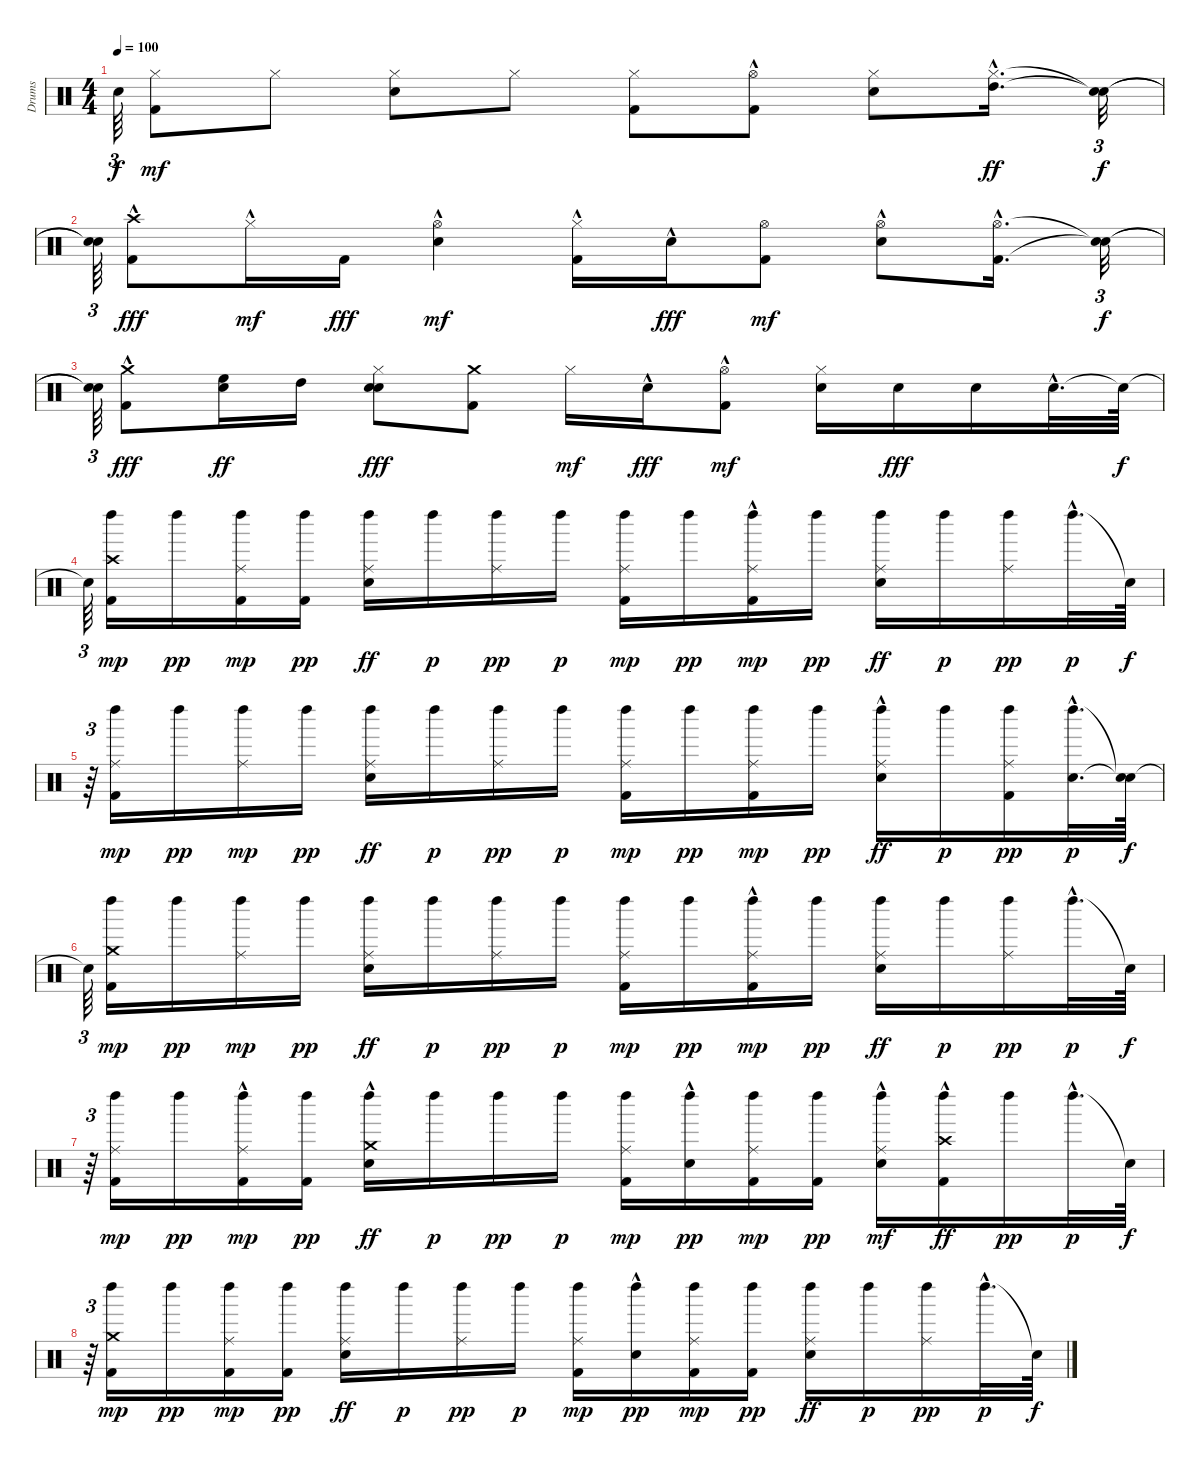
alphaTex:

\track ("Drums" "Drums") {instrument percussion}
\staff {score}
\articulation defaults
\ts (4 4)
\tempo 100
\clef neutral
\ks c "Snare (hit)"{t}.64{tu (3 2) dy f}
("Kick (hit) 2" "Hi-Hat (closed)").8{dy mf} "Hi-Hat (closed)".8 ("Snare (hit) 2" "Hi-Hat (closed)").8 "Hi-Hat (closed)".8 ("Kick (hit) 2" "Hi-Hat (closed)").8 ("Kick (hit) 2"{hac} "Hi-Hat (open)").8 ("Snare (hit) 2" "Hi-Hat (closed)").8 ("Hi-Hat (closed)"{hac} "High Tom (hit)"{hac}).16{d dy ff} ("Snare (hit)"{t} "Snare (hit)"{t}).32{tu (3 2) dy f} |
("Snare (hit)"{t} "Snare (hit)"{t}).64{tu (3 2)} ("Crash high (hit)" "Kick (hit) 2"{hac}).8{dy fff} "Hi-Hat (closed)"{hac}.16{dy mf} "Kick (hit) 2".16{dy fff} ("Snare (hit) 2" "Hi-Hat (open)"{hac}).4{dy mf} ("Kick (hit) 2" "Hi-Hat (closed)"{hac}).16 "Snare (hit) 2"{hac}.16{dy fff} ("Kick (hit) 2" "Hi-Hat (open)").8{dy mf} ("Snare (hit) 2"{hac} "Hi-Hat (open)").8 ("Kick (hit) 2"{hac} "Hi-Hat (open)"{hac}).16{d} ("Snare (hit)"{t} "Snare (hit)"{t}).32{tu (3 2) dy f} |
("Snare (hit)"{t} "Snare (hit)"{t}).64{tu (3 2)} ("Crash medium (hit)"{hac} "Kick (hit) 2"{hac}).8{dy fff} ("Snare (hit) 2" "High Floor Tom (hit)").16{dy ff} "High Tom (hit)".16 ("Snare (hit) 2" "Hi-Hat (closed)" "Snare (hit) 2").8{dy fff} ("Crash medium (hit)" "Kick (hit) 2").8 "Hi-Hat (closed)".16{dy mf} "Snare (hit) 2"{hac}.16{dy fff} ("Kick (hit) 2"{hac} "Hi-Hat (open)").8{dy mf} ("Snare (hit) 2" "Hi-Hat (closed)").16 "Snare (hit) 2".16{dy fff} "Snare (hit) 2".16 "Snare (hit) 2"{hac}.32{d} "Snare (hit)"{t}.64{dy f} |
"Snare (hit)"{t}.64{tu (3 2)} ("Crash high (hit)" "Kick (hit) 2" "Left Maraca (hit)").16{dy mp} "Left Maraca (hit)".16{dy pp} ("Ride (middle)" "Kick (hit) 2" "Left Maraca (hit)").16{dy mp} ("Kick (hit) 2" "Left Maraca (hit)").16{dy pp} ("Ride (middle)" "Snare (hit) 2" "Left Maraca (hit)").16{dy ff} "Left Maraca (hit)".16{dy p} ("Ride (middle)" "Left Maraca (hit)").16{dy pp} "Left Maraca (hit)".16{dy p} ("Ride (middle)" "Kick (hit) 2" "Left Maraca (hit)").16{dy mp} "Left Maraca (hit)".16{dy pp} ("Ride (middle)" "Kick (hit) 2"{hac} "Left Maraca (hit)").16{dy mp} "Left Maraca (hit)".16{dy pp} ("Ride (middle)" "Snare (hit) 2" "Left Maraca (hit)").16{dy ff} "Left Maraca (hit)".16{dy p} ("Ride (middle)" "Left Maraca (hit)").16{dy pp} "Left Maraca (hit)"{hac}.32{d dy p} "Snare (hit)"{t}.64{dy f} |
r.64{tu (3 2)} ("Ride (middle)" "Kick (hit) 2" "Left Maraca (hit)").16{dy mp} "Left Maraca (hit)".16{dy pp} ("Ride (middle)" "Left Maraca (hit)").16{dy mp} "Left Maraca (hit)".16{dy pp} ("Ride (middle)" "Snare (hit) 2" "Left Maraca (hit)").16{dy ff} "Left Maraca (hit)".16{dy p} ("Ride (middle)" "Left Maraca (hit)").16{dy pp} "Left Maraca (hit)".16{dy p} ("Ride (middle)" "Kick (hit) 2" "Left Maraca (hit)").16{dy mp} "Left Maraca (hit)".16{dy pp} ("Ride (middle)" "Kick (hit) 2" "Left Maraca (hit)").16{dy mp} "Left Maraca (hit)".16{dy pp} ("Ride (middle)" "Snare (hit) 2"{hac} "Left Maraca (hit)").16{dy ff} "Left Maraca (hit)".16{dy p} ("Ride (middle)" "Kick (hit) 2" "Left Maraca (hit)").16{dy pp} ("Snare (hit) 2"{hac} "Left Maraca (hit)"{hac}).32{d dy p} ("Snare (hit)"{t} "Snare (hit)"{t}).64{dy f} |
"Snare (hit)"{t}.64{tu (3 2)} ("Crash medium (hit)" "Kick (hit) 2" "Left Maraca (hit)").16{dy mp} "Left Maraca (hit)".16{dy pp} ("Ride (middle)" "Left Maraca (hit)").16{dy mp} "Left Maraca (hit)".16{dy pp} ("Ride (middle)" "Snare (hit) 2" "Left Maraca (hit)").16{dy ff} "Left Maraca (hit)".16{dy p} ("Ride (middle)" "Left Maraca (hit)").16{dy pp} "Left Maraca (hit)".16{dy p} ("Ride (middle)" "Kick (hit) 2" "Left Maraca (hit)").16{dy mp} "Left Maraca (hit)".16{dy pp} ("Ride (middle)" "Kick (hit) 2"{hac} "Left Maraca (hit)").16{dy mp} "Left Maraca (hit)".16{dy pp} ("Ride (middle)" "Snare (hit) 2" "Left Maraca (hit)").16{dy ff} "Left Maraca (hit)".16{dy p} ("Ride (middle)" "Left Maraca (hit)").16{dy pp} "Left Maraca (hit)"{hac}.32{d dy p} "Snare (hit)"{t}.64{dy f} |
r.64{tu (3 2)} ("Ride (middle)" "Kick (hit) 2" "Left Maraca (hit)").16{dy mp} "Left Maraca (hit)".16{dy pp} ("Ride (middle)"{hac} "Kick (hit) 2" "Left Maraca (hit)").16{dy mp} ("Kick (hit) 2" "Left Maraca (hit)").16{dy pp} ("Crash medium (hit)"{hac} "Snare (hit) 2" "Left Maraca (hit)").16{dy ff} "Left Maraca (hit)".16{dy p} "Left Maraca (hit)".16{dy pp} "Left Maraca (hit)".16{dy p} ("Ride (middle)" "Kick (hit) 2" "Left Maraca (hit)").16{dy mp} ("Snare (hit) 2"{hac} "Left Maraca (hit)").16{dy pp} ("Ride (middle)" "Kick (hit) 2" "Left Maraca (hit)").16{dy mp} ("Kick (hit) 2" "Left Maraca (hit)").16{dy pp} ("Ride (middle)"{hac} "Snare (hit) 2" "Left Maraca (hit)").16{dy mf} ("Crash high (hit)" "Kick (hit) 2"{hac} "Left Maraca (hit)").16{dy ff} "Left Maraca (hit)".16{dy pp} "Left Maraca (hit)"{hac}.32{d dy p} "Snare (hit)"{t}.64{dy f} |
r.64{tu (3 2)} ("Crash medium (hit)" "Kick (hit) 2" "Left Maraca (hit)").16{dy mp} "Left Maraca (hit)".16{dy pp} ("Ride (middle)" "Kick (hit) 2" "Left Maraca (hit)").16{dy mp} ("Kick (hit) 2" "Left Maraca (hit)").16{dy pp} ("Ride (middle)" "Snare (hit) 2" "Left Maraca (hit)").16{dy ff} "Left Maraca (hit)".16{dy p} ("Ride (middle)" "Left Maraca (hit)").16{dy pp} "Left Maraca (hit)".16{dy p} ("Ride (middle)" "Kick (hit) 2" "Left Maraca (hit)").16{dy mp} ("Snare (hit) 2"{hac} "Left Maraca (hit)").16{dy pp} ("Ride (middle)" "Kick (hit) 2" "Left Maraca (hit)").16{dy mp} ("Kick (hit) 2" "Left Maraca (hit)").16{dy pp} ("Ride (middle)" "Snare (hit) 2" "Left Maraca (hit)").16{dy ff} "Left Maraca (hit)".16{dy p} ("Ride (middle)" "Left Maraca (hit)").16{dy pp} "Left Maraca (hit)"{hac}.32{d dy p} "Snare (hit)"{t}.64{dy f}
